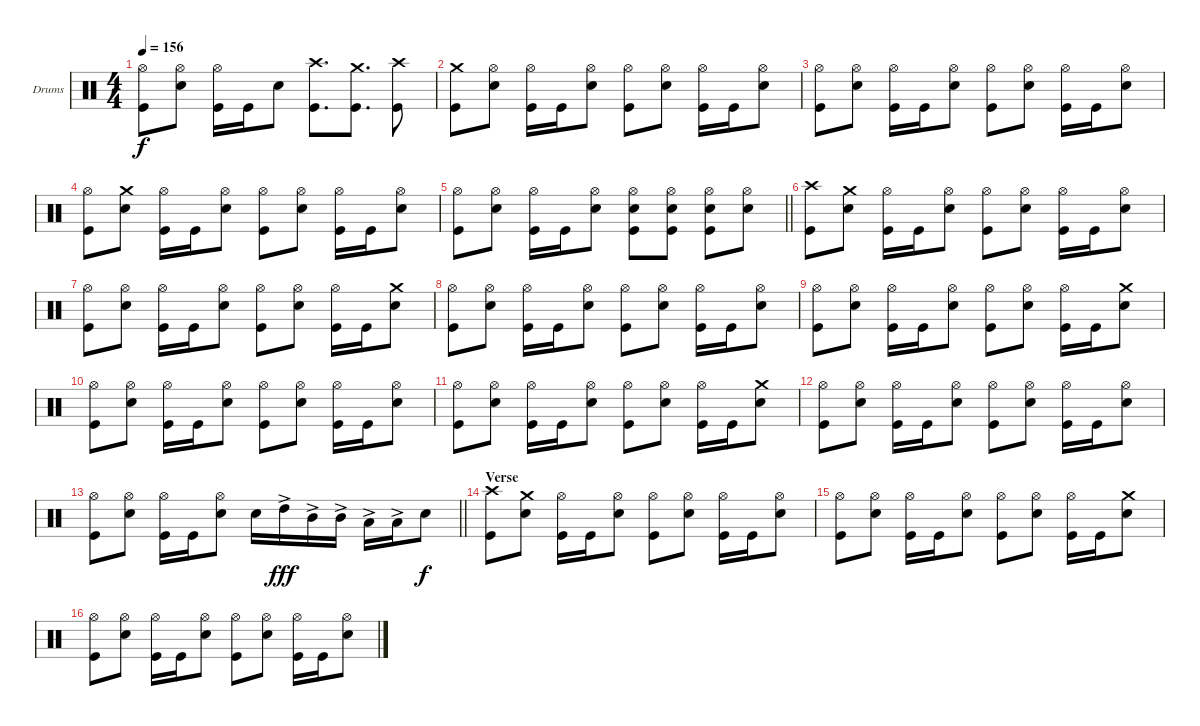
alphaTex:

\bracketExtendMode groupsimilarinstruments
\firstSystemTrackNameOrientation horizontal
\otherSystemsTrackNameOrientation horizontal
\track ("Drums" "Drums") {instrument percussion}
\staff {score}
\articulation defaults
\ts (4 4)
\tempo 156
\clef neutral
\ks c
("Hi-Hat (open)" "Kick (hit)").8{dy f} ("Hi-Hat (open)" "Snare (hit) 2").8 ("Hi-Hat (open)" "Kick (hit)").16 "Kick (hit)".16 "Snare (hit) 2".8 ("Crash high (hit)" "Kick (hit)").8{d} ("Crash medium (hit)" "Kick (hit)").8{d} ("Crash high (hit)" "Kick (hit)").8 |
("Crash medium (hit)" "Kick (hit)").8 ("Hi-Hat (open)" "Snare (hit) 2").8 ("Hi-Hat (open)" "Kick (hit)").16 "Kick (hit)".16 ("Hi-Hat (open)" "Snare (hit) 2").8 ("Hi-Hat (open)" "Kick (hit)").8 ("Hi-Hat (open)" "Snare (hit) 2").8 ("Hi-Hat (open)" "Kick (hit)").16 "Kick (hit)".16 ("Hi-Hat (open)" "Snare (hit) 2").8 |
("Hi-Hat (open)" "Kick (hit)").8 ("Hi-Hat (open)" "Snare (hit) 2").8 ("Hi-Hat (open)" "Kick (hit)").16 "Kick (hit)".16 ("Hi-Hat (open)" "Snare (hit) 2").8 ("Hi-Hat (open)" "Kick (hit)").8 ("Hi-Hat (open)" "Snare (hit) 2").8 ("Hi-Hat (open)" "Kick (hit)").16 "Kick (hit)".16 ("Hi-Hat (open)" "Snare (hit) 2").8 |
("Hi-Hat (open)" "Kick (hit)").8 ("Crash medium (hit)" "Snare (hit) 2").8 ("Hi-Hat (open)" "Kick (hit)").16 "Kick (hit)".16 ("Hi-Hat (open)" "Snare (hit) 2").8 ("Hi-Hat (open)" "Kick (hit)").8 ("Hi-Hat (open)" "Snare (hit) 2").8 ("Hi-Hat (open)" "Kick (hit)").16 "Kick (hit)".16 ("Hi-Hat (open)" "Snare (hit) 2").8 |
\barLineRight lightlight
("Hi-Hat (open)" "Kick (hit)").8 ("Hi-Hat (open)" "Snare (hit) 2").8 ("Hi-Hat (open)" "Kick (hit)").16 "Kick (hit)".16 ("Hi-Hat (open)" "Snare (hit) 2").8 ("Hi-Hat (open)" "Snare (hit) 2" "Kick (hit)").8 ("Hi-Hat (open)" "Snare (hit) 2" "Kick (hit)").8 ("Hi-Hat (open)" "Snare (hit) 2" "Kick (hit)").8 ("Hi-Hat (open)" "Snare (hit) 2").8 |
("Crash high (hit)" "Kick (hit)").8 ("Crash medium (hit)" "Snare (hit) 2").8 ("Hi-Hat (open)" "Kick (hit)").16 "Kick (hit)".16 ("Hi-Hat (open)" "Snare (hit) 2").8 ("Hi-Hat (open)" "Kick (hit)").8 ("Hi-Hat (open)" "Snare (hit) 2").8 ("Hi-Hat (open)" "Kick (hit)").16 "Kick (hit)".16 ("Hi-Hat (open)" "Snare (hit) 2").8 |
("Hi-Hat (open)" "Kick (hit)").8 ("Hi-Hat (open)" "Snare (hit) 2").8 ("Hi-Hat (open)" "Kick (hit)").16 "Kick (hit)".16 ("Hi-Hat (open)" "Snare (hit) 2").8 ("Hi-Hat (open)" "Kick (hit)").8 ("Hi-Hat (open)" "Snare (hit) 2").8 ("Hi-Hat (open)" "Kick (hit)").16 "Kick (hit)".16 ("Crash medium (hit)" "Snare (hit) 2").8 |
("Hi-Hat (open)" "Kick (hit)").8 ("Hi-Hat (open)" "Snare (hit) 2").8 ("Hi-Hat (open)" "Kick (hit)").16 "Kick (hit)".16 ("Hi-Hat (open)" "Snare (hit) 2").8 ("Hi-Hat (open)" "Kick (hit)").8 ("Hi-Hat (open)" "Snare (hit) 2").8 ("Hi-Hat (open)" "Kick (hit)").16 "Kick (hit)".16 ("Hi-Hat (open)" "Snare (hit) 2").8 |
("Hi-Hat (open)" "Kick (hit)").8 ("Hi-Hat (open)" "Snare (hit) 2").8 ("Hi-Hat (open)" "Kick (hit)").16 "Kick (hit)".16 ("Hi-Hat (open)" "Snare (hit) 2").8 ("Hi-Hat (open)" "Kick (hit)").8 ("Hi-Hat (open)" "Snare (hit) 2").8 ("Hi-Hat (open)" "Kick (hit)").16 "Kick (hit)".16 ("Crash medium (hit)" "Snare (hit) 2").8 |
("Hi-Hat (open)" "Kick (hit)").8 ("Hi-Hat (open)" "Snare (hit) 2").8 ("Hi-Hat (open)" "Kick (hit)").16 "Kick (hit)".16 ("Hi-Hat (open)" "Snare (hit) 2").8 ("Hi-Hat (open)" "Kick (hit)").8 ("Hi-Hat (open)" "Snare (hit) 2").8 ("Hi-Hat (open)" "Kick (hit)").16 "Kick (hit)".16 ("Hi-Hat (open)" "Snare (hit) 2").8 |
("Hi-Hat (open)" "Kick (hit)").8 ("Hi-Hat (open)" "Snare (hit) 2").8 ("Hi-Hat (open)" "Kick (hit)").16 "Kick (hit)".16 ("Hi-Hat (open)" "Snare (hit) 2").8 ("Hi-Hat (open)" "Kick (hit)").8 ("Hi-Hat (open)" "Snare (hit) 2").8 ("Hi-Hat (open)" "Kick (hit)").16 "Kick (hit)".16 ("Crash medium (hit)" "Snare (hit) 2").8 |
("Hi-Hat (open)" "Kick (hit)").8 ("Hi-Hat (open)" "Snare (hit) 2").8 ("Hi-Hat (open)" "Kick (hit)").16 "Kick (hit)".16 ("Hi-Hat (open)" "Snare (hit) 2").8 ("Hi-Hat (open)" "Kick (hit)").8 ("Hi-Hat (open)" "Snare (hit) 2").8 ("Hi-Hat (open)" "Kick (hit)").16 "Kick (hit)".16 ("Hi-Hat (open)" "Snare (hit) 2").8 |
\barLineRight lightlight
("Hi-Hat (open)" "Kick (hit)").8 ("Hi-Hat (open)" "Snare (hit) 2").8 ("Hi-Hat (open)" "Kick (hit)").16 "Kick (hit)".16 ("Hi-Hat (open)" "Snare (hit) 2").8 "Snare (hit) 2".16 "High Tom (hit)"{ac}.16{dy fff} "Mid Tom (hit)"{ac}.16 "Mid Tom (hit)"{ac}.16 "Low Tom (hit)"{ac}.16 "Low Tom (hit)"{ac}.16 "Snare (hit) 2".8{dy f} |
\section ("" "Verse")
("Crash high (hit)" "Kick (hit)").8 ("Crash medium (hit)" "Snare (hit) 2").8 ("Hi-Hat (open)" "Kick (hit)").16 "Kick (hit)".16 ("Hi-Hat (open)" "Snare (hit) 2").8 ("Hi-Hat (open)" "Kick (hit)").8 ("Hi-Hat (open)" "Snare (hit) 2").8 ("Hi-Hat (open)" "Kick (hit)").16 "Kick (hit)".16 ("Hi-Hat (open)" "Snare (hit) 2").8 |
("Hi-Hat (open)" "Kick (hit)").8 ("Hi-Hat (open)" "Snare (hit) 2").8 ("Hi-Hat (open)" "Kick (hit)").16 "Kick (hit)".16 ("Hi-Hat (open)" "Snare (hit) 2").8 ("Hi-Hat (open)" "Kick (hit)").8 ("Hi-Hat (open)" "Snare (hit) 2").8 ("Hi-Hat (open)" "Kick (hit)").16 "Kick (hit)".16 ("Crash medium (hit)" "Snare (hit) 2").8 |
("Hi-Hat (open)" "Kick (hit)").8 ("Hi-Hat (open)" "Snare (hit) 2").8 ("Hi-Hat (open)" "Kick (hit)").16 "Kick (hit)".16 ("Hi-Hat (open)" "Snare (hit) 2").8 ("Hi-Hat (open)" "Kick (hit)").8 ("Hi-Hat (open)" "Snare (hit) 2").8 ("Hi-Hat (open)" "Kick (hit)").16 "Kick (hit)".16 ("Hi-Hat (open)" "Snare (hit) 2").8
